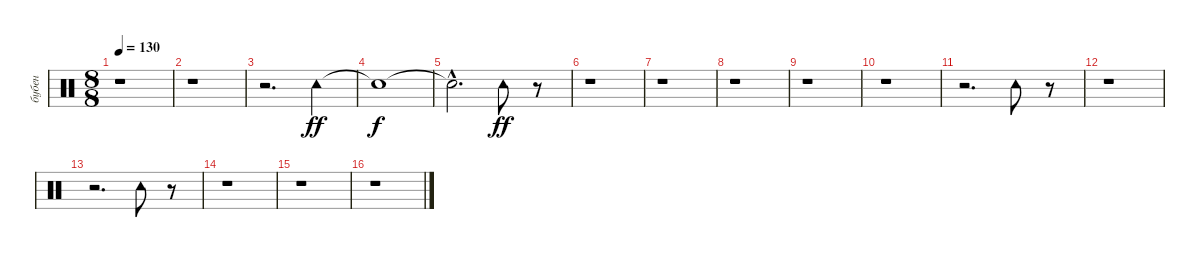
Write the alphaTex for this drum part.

\track ("бубен" "бубен") {instrument percussion}
\staff {score}
\articulation defaults
\ts (8 8)
\tempo 130
\clef neutral
\ks c
r.1{dy ff} |
r.1 |
r.2{d} "Tambourine (hit)".4 |
"Snare (hit)"{t}.1{dy f} |
"Snare (hit)"{hac t}.2{d} "Tambourine (hit)".8{dy ff} r.8 |
r.1 |
r.1 |
r.1 |
r.1 |
r.1 |
r.2{d} "Tambourine (hit)".8 r.8 |
r.1 |
r.2{d} "Tambourine (hit)".8 r.8 |
r.1 |
r.1 |
r.1
